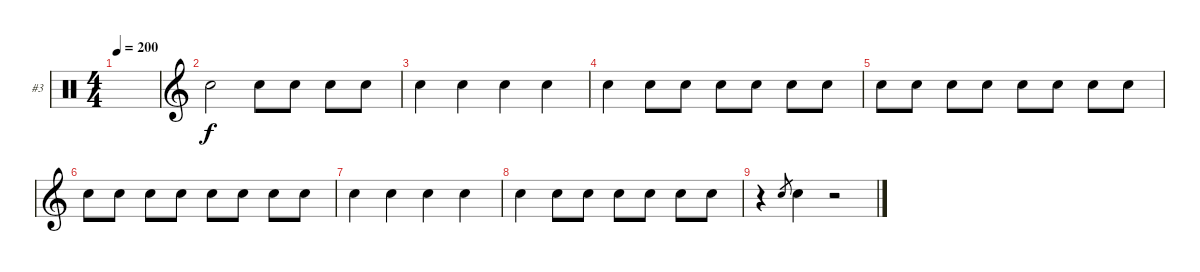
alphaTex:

\bracketExtendMode groupsimilarinstruments
\firstSystemTrackNameOrientation horizontal
\otherSystemsTrackNameOrientation horizontal
\track ("Chris Fehn" "#3") {instrument percussion}
\staff {score}
\articulation defaults
\ts (4 4)
\tempo 200
\clef neutral
\ks c
|
\clef g2 "Snare (hit) 2".2 "Snare (hit) 2".8 "Snare (hit) 2".8 "Snare (hit) 2".8 "Snare (hit) 2".8
|
"Snare (hit) 2".4 "Snare (hit) 2".4 "Snare (hit) 2".4 "Snare (hit) 2".4 |
"Snare (hit) 2".4 "Snare (hit) 2".8 "Snare (hit) 2".8 "Snare (hit) 2".8 "Snare (hit) 2".8 "Snare (hit) 2".8 "Snare (hit) 2".8 |
"Snare (hit) 2".8 "Snare (hit) 2".8 "Snare (hit) 2".8 "Snare (hit) 2".8 "Snare (hit) 2".8 "Snare (hit) 2".8 "Snare (hit) 2".8 "Snare (hit) 2".8 |
"Snare (hit) 2".8 "Snare (hit) 2".8 "Snare (hit) 2".8 "Snare (hit) 2".8 "Snare (hit) 2".8 "Snare (hit) 2".8 "Snare (hit) 2".8 "Snare (hit) 2".8 |
"Snare (hit) 2".4 "Snare (hit) 2".4 "Snare (hit) 2".4 "Snare (hit) 2".4 |
"Snare (hit) 2".4 "Snare (hit) 2".8 "Snare (hit) 2".8 "Snare (hit) 2".8 "Snare (hit) 2".8 "Snare (hit) 2".8 "Snare (hit) 2".8 |
r.4 "Snare (hit) 2".8{gr} "Snare (hit) 2".4 r.2
